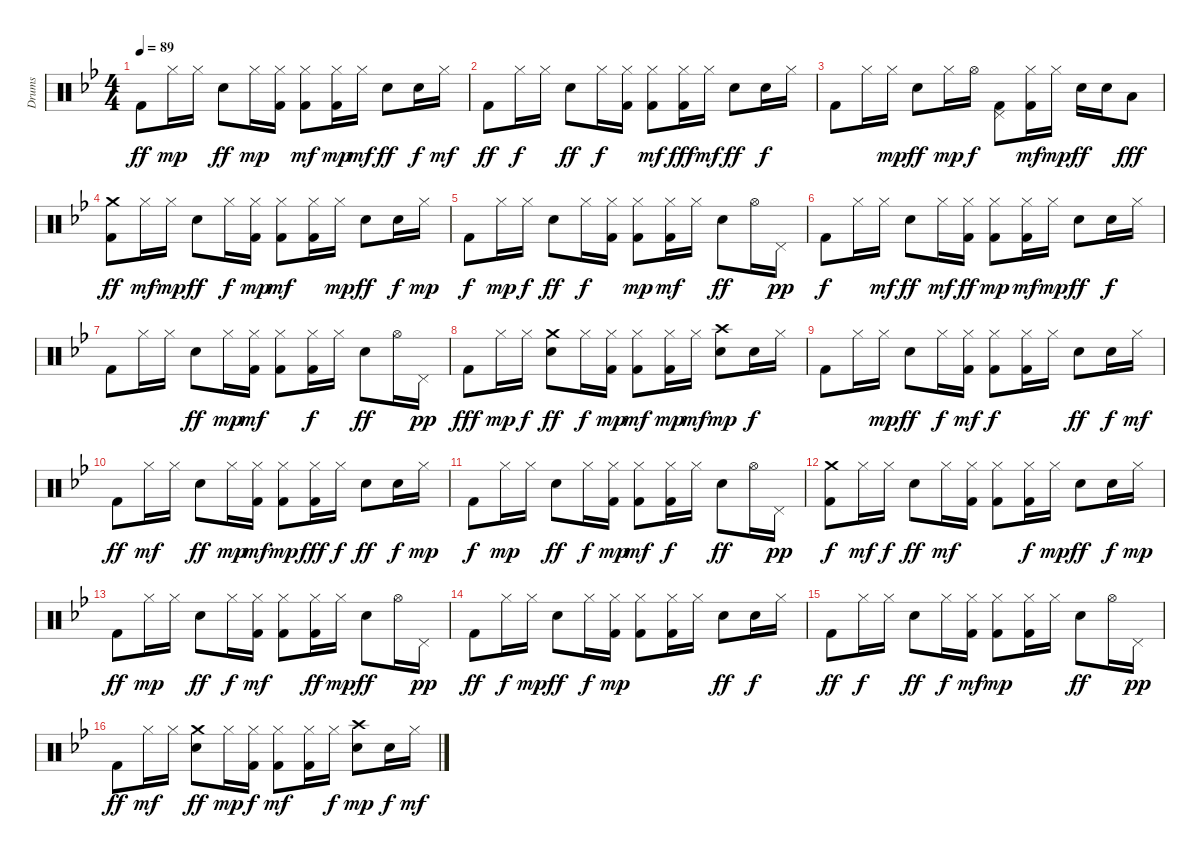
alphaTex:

\track ("Drums" "Drums") {instrument percussion}
\staff {score}
\articulation defaults
\ts (4 4)
\tempo 89
\clef neutral
\ks bb "Kick (hit) 2".8{dy ff} "Hi-Hat (closed)".16{dy mp} "Hi-Hat (closed)".16 "Electric Snare (hit)".8{dy ff} "Hi-Hat (closed)".16{dy mp}
("Kick (hit) 2" "Hi-Hat (closed)").16 ("Kick (hit) 2" "Hi-Hat (closed)").8{dy mf} ("Kick (hit) 2" "Hi-Hat (closed)").16{dy mp} "Hi-Hat (closed)".16{dy mf} "Electric Snare (hit)".8{dy ff} "Hand Clap (hit)".16{dy f} "Hi-Hat (closed)".16{dy mf} |
"Kick (hit) 2".8{dy ff} "Hi-Hat (closed)".16{dy f} "Hi-Hat (closed)".16 "Electric Snare (hit)".8{dy ff} "Hi-Hat (closed)".16{dy f} ("Kick (hit) 2" "Hi-Hat (closed)").16 ("Kick (hit) 2" "Hi-Hat (closed)").8{dy mf} ("Kick (hit) 2" "Hi-Hat (closed)").16{dy fff} "Hi-Hat (closed)".16{dy mf} "Electric Snare (hit)".8{dy ff} "Hand Clap (hit)".16{dy f} "Hi-Hat (closed)".16 |
"Kick (hit) 2".8 "Hi-Hat (closed)".16 "Hi-Hat (closed)".16{dy mp} "Electric Snare (hit)".8{dy ff} "Hi-Hat (closed)".16{dy mp} "Hi-Hat (open)".16{dy f} ("Kick (hit) 2" "Pedal Hi-Hat (hit)").8 ("Kick (hit) 2" "Hi-Hat (closed)").16{dy mf} "Hi-Hat (closed)".16{dy mp} "Electric Snare (hit)".16{dy ff} "Electric Snare (hit)".16 "Low Tom (hit)".8{dy fff} |
("Kick (hit) 2" "Crash medium (hit)").8{dy ff} "Hi-Hat (closed)".16{dy mf} "Hi-Hat (closed)".16{dy mp} "Electric Snare (hit)".8{dy ff} "Hi-Hat (closed)".16{dy f} ("Kick (hit) 2" "Hi-Hat (closed)").16{dy mp} ("Kick (hit) 2" "Hi-Hat (closed)").8{dy mf} ("Kick (hit) 2" "Hi-Hat (closed)").16 "Hi-Hat (closed)".16{dy mp} "Electric Snare (hit)".8{dy ff} "Hand Clap (hit)".16{dy f} "Hi-Hat (closed)".16{dy mp} |
"Kick (hit) 2".8{dy f} "Hi-Hat (closed)".16{dy mp} "Hi-Hat (closed)".16{dy f} "Electric Snare (hit)".8{dy ff} "Hi-Hat (closed)".16{dy f} ("Kick (hit) 2" "Hi-Hat (closed)").16 ("Kick (hit) 2" "Hi-Hat (closed)").8{dy mp} ("Kick (hit) 2" "Hi-Hat (closed)").16{dy mf} "Hi-Hat (closed)".16 "Electric Snare (hit)".8{dy ff} "Hi-Hat (open)".16 "Pedal Hi-Hat (hit)".16{dy pp} |
"Kick (hit) 2".8{dy f} "Hi-Hat (closed)".16 "Hi-Hat (closed)".16{dy mf} "Electric Snare (hit)".8{dy ff} "Hi-Hat (closed)".16{dy mf} ("Kick (hit) 2" "Hi-Hat (closed)").16{dy ff} ("Kick (hit) 2" "Hi-Hat (closed)").8{dy mp} ("Kick (hit) 2" "Hi-Hat (closed)").16{dy mf} "Hi-Hat (closed)".16{dy mp} "Electric Snare (hit)".8{dy ff} "Hand Clap (hit)".16{dy f} "Hi-Hat (closed)".16 |
"Kick (hit) 2".8 "Hi-Hat (closed)".16 "Hi-Hat (closed)".16 "Electric Snare (hit)".8{dy ff} "Hi-Hat (closed)".16{dy mp} ("Kick (hit) 2" "Hi-Hat (closed)").16{dy mf} ("Kick (hit) 2" "Hi-Hat (closed)").8 ("Kick (hit) 2" "Hi-Hat (closed)").16{dy f} "Hi-Hat (closed)".16 "Electric Snare (hit)".8{dy ff} "Hi-Hat (open)".16 "Pedal Hi-Hat (hit)".16{dy pp} |
"Kick (hit) 2".8{dy fff} "Hi-Hat (closed)".16{dy mp} "Hi-Hat (closed)".16{dy f} ("Electric Snare (hit)" "Crash medium (hit)").8{dy ff} "Hi-Hat (closed)".16{dy f} ("Kick (hit) 2" "Hi-Hat (closed)").16{dy mp} ("Kick (hit) 2" "Hi-Hat (closed)").8{dy mf} ("Kick (hit) 2" "Hi-Hat (closed)").16{dy mp} "Hi-Hat (closed)".16{dy mf} ("Electric Snare (hit)" "Crash high (hit)").8{dy mp} "Hand Clap (hit)".16{dy f} "Hi-Hat (closed)".16 |
"Kick (hit) 2".8 "Hi-Hat (closed)".16 "Hi-Hat (closed)".16{dy mp} "Electric Snare (hit)".8{dy ff} "Hi-Hat (closed)".16{dy f} ("Kick (hit) 2" "Hi-Hat (closed)").16{dy mf} ("Kick (hit) 2" "Hi-Hat (closed)").8{dy f} ("Kick (hit) 2" "Hi-Hat (closed)").16 "Hi-Hat (closed)".16 "Electric Snare (hit)".8{dy ff} "Hand Clap (hit)".16{dy f} "Hi-Hat (closed)".16{dy mf} |
"Kick (hit) 2".8{dy ff} "Hi-Hat (closed)".16{dy mf} "Hi-Hat (closed)".16 "Electric Snare (hit)".8{dy ff} "Hi-Hat (closed)".16{dy mp} ("Kick (hit) 2" "Hi-Hat (closed)").16{dy mf} ("Kick (hit) 2" "Hi-Hat (closed)").8{dy mp} ("Kick (hit) 2" "Hi-Hat (closed)").16{dy fff} "Hi-Hat (closed)".16{dy f} "Electric Snare (hit)".8{dy ff} "Hand Clap (hit)".16{dy f} "Hi-Hat (closed)".16{dy mp} |
"Kick (hit) 2".8{dy f} "Hi-Hat (closed)".16{dy mp} "Hi-Hat (closed)".16 "Electric Snare (hit)".8{dy ff} "Hi-Hat (closed)".16{dy f} ("Kick (hit) 2" "Hi-Hat (closed)").16{dy mp} ("Kick (hit) 2" "Hi-Hat (closed)").8{dy mf} ("Kick (hit) 2" "Hi-Hat (closed)").16{dy f} "Hi-Hat (closed)".16 "Electric Snare (hit)".8{dy ff} "Hi-Hat (open)".16 "Pedal Hi-Hat (hit)".16{dy pp} |
("Kick (hit) 2" "Crash medium (hit)").8{dy f} "Hi-Hat (closed)".16{dy mf} "Hi-Hat (closed)".16{dy f} "Electric Snare (hit)".8{dy ff} "Hi-Hat (closed)".16{dy mf} ("Kick (hit) 2" "Hi-Hat (closed)").16 ("Kick (hit) 2" "Hi-Hat (closed)").8 ("Kick (hit) 2" "Hi-Hat (closed)").16{dy f} "Hi-Hat (closed)".16{dy mp} "Electric Snare (hit)".8{dy ff} "Hand Clap (hit)".16{dy f} "Hi-Hat (closed)".16{dy mp} |
"Kick (hit) 2".8{dy ff} "Hi-Hat (closed)".16{dy mp} "Hi-Hat (closed)".16 "Electric Snare (hit)".8{dy ff} "Hi-Hat (closed)".16{dy f} ("Kick (hit) 2" "Hi-Hat (closed)").16{dy mf} ("Kick (hit) 2" "Hi-Hat (closed)").8 ("Kick (hit) 2" "Hi-Hat (closed)").16{dy ff} "Hi-Hat (closed)".16{dy mp} "Electric Snare (hit)".8{dy ff} "Hi-Hat (open)".16 "Pedal Hi-Hat (hit)".16{dy pp} |
"Kick (hit) 2".8{dy ff} "Hi-Hat (closed)".16{dy f} "Hi-Hat (closed)".16{dy mp} "Electric Snare (hit)".8{dy ff} "Hi-Hat (closed)".16{dy f} ("Kick (hit) 2" "Hi-Hat (closed)").16{dy mp} ("Kick (hit) 2" "Hi-Hat (closed)").8 ("Kick (hit) 2" "Hi-Hat (closed)").16 "Hi-Hat (closed)".16 "Electric Snare (hit)".8{dy ff} "Hand Clap (hit)".16{dy f} "Hi-Hat (closed)".16 |
"Kick (hit) 2".8{dy ff} "Hi-Hat (closed)".16{dy f} "Hi-Hat (closed)".16 "Electric Snare (hit)".8{dy ff} "Hi-Hat (closed)".16{dy f} ("Kick (hit) 2" "Hi-Hat (closed)").16{dy mf} ("Kick (hit) 2" "Hi-Hat (closed)").8{dy mp} ("Kick (hit) 2" "Hi-Hat (closed)").16 "Hi-Hat (closed)".16 "Electric Snare (hit)".8{dy ff} "Hi-Hat (open)".16 "Pedal Hi-Hat (hit)".16{dy pp} |
"Kick (hit) 2".8{dy ff} "Hi-Hat (closed)".16{dy mf} "Hi-Hat (closed)".16 ("Electric Snare (hit)" "Crash medium (hit)").8{dy ff} "Hi-Hat (closed)".16{dy mp} ("Kick (hit) 2" "Hi-Hat (closed)").16{dy f} ("Kick (hit) 2" "Hi-Hat (closed)").8{dy mf} ("Kick (hit) 2" "Hi-Hat (closed)").16 "Hi-Hat (closed)".16{dy f} ("Electric Snare (hit)" "Crash high (hit)").8{dy mp} "Hand Clap (hit)".16{dy f} "Hi-Hat (closed)".16{dy mf}
